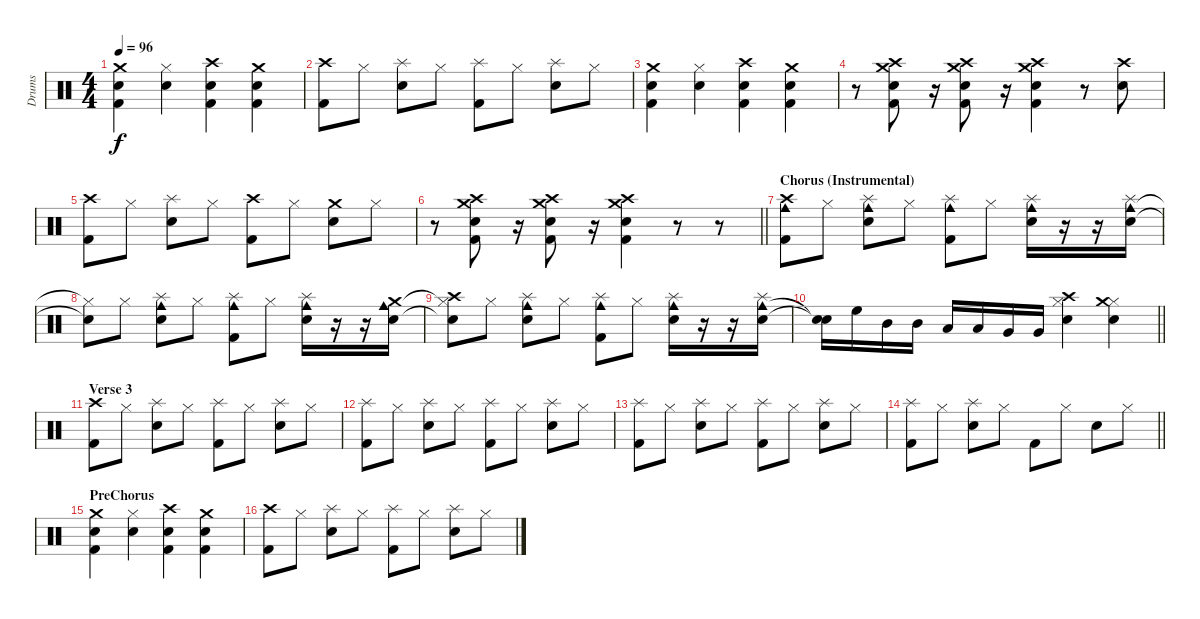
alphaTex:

\track ("Drums" "Drums") {instrument percussion}
\staff {score}
\articulation defaults
\ts (4 4)
\tempo 96
\clef neutral
\ks c
("Snare (hit) 2" "Kick (hit) 2" "Crash medium (hit)").4{dy f} ("Snare (hit) 2" "Hi-Hat (closed)").4 ("Snare (hit) 2" "Kick (hit) 2" "Crash high (hit)").4 ("Snare (hit) 2" "Kick (hit) 2" "Crash medium (hit)").4 |
("Kick (hit) 2" "Crash high (hit)").8 "Hi-Hat (closed)".8 ("Snare (hit) 2" "Splash (hit)").8 "Hi-Hat (closed)".8 ("Kick (hit) 2" "Splash (hit)").8 "Hi-Hat (closed)".8 ("Snare (hit) 2" "Splash (hit)").8 "Hi-Hat (closed)".8 |
("Snare (hit) 2" "Kick (hit) 2" "Crash medium (hit)").4 ("Snare (hit) 2" "Hi-Hat (closed)").4 ("Snare (hit) 2" "Kick (hit) 2" "Crash high (hit)").4 ("Snare (hit) 2" "Kick (hit) 2" "Crash medium (hit)").4 |
r.8 ("Snare (hit) 2" "Kick (hit) 2" "Crash high (hit)" "Crash medium (hit)").8 r.16 ("Snare (hit) 2" "Kick (hit) 2" "Crash high (hit)" "Crash medium (hit)").8 r.16 ("Snare (hit) 2" "Kick (hit) 2" "Crash high (hit)" "Crash medium (hit)").4 r.8 ("Snare (hit) 2" "Crash high (hit)").8 |
("Kick (hit) 2" "Crash high (hit)").8 "Hi-Hat (closed)".8 ("Snare (hit) 2" "Splash (hit)").8 "Hi-Hat (closed)".8 ("Kick (hit) 2" "Crash high (hit)").8 "Hi-Hat (closed)".8 ("Snare (hit) 2" "Crash medium (hit)").8 "Hi-Hat (closed)".8 |
\barLineRight lightlight
r.8 ("Snare (hit) 2" "Kick (hit) 2" "Crash high (hit)" "Crash medium (hit)").8 r.16 ("Snare (hit) 2" "Kick (hit) 2" "Crash high (hit)" "Crash medium (hit)").8 r.16 ("Snare (hit) 2" "Kick (hit) 2" "Crash high (hit)" "Crash medium (hit)").4 r.8 r.8 |
\section ("" "Chorus (Instrumental)")
("Kick (hit) 2" "Cowbell medium (hit)" "Crash high (hit)").8 "Hi-Hat (closed)".8 ("Snare (hit) 2" "Cowbell medium (hit)" "Splash (hit)").8 "Hi-Hat (closed)".8 ("Kick (hit) 2" "Cowbell medium (hit)" "Splash (hit)").8 "Hi-Hat (closed)".8 ("Snare (hit) 2" "Cowbell medium (hit)" "Splash (hit)").16 r.16 r.16 ("Snare (hit) 2" "Cowbell medium (hit)" "Splash (hit)").16 |
("Snare (hit) 2"{t} "Hi-Hat (closed)"{t}).8 "Hi-Hat (closed)".8 ("Snare (hit) 2" "Cowbell medium (hit)" "Splash (hit)").8 "Hi-Hat (closed)".8 ("Kick (hit) 2" "Cowbell medium (hit)" "Splash (hit)").8 "Hi-Hat (closed)".8 ("Snare (hit) 2" "Cowbell medium (hit)" "Splash (hit)").16 r.16 r.16 ("Snare (hit) 2" "Cowbell medium (hit)" "Crash medium (hit)").16 |
("Snare (hit) 2"{t} "Hi-Hat (closed)"{t} "Crash high (hit)").8 "Hi-Hat (closed)".8 ("Snare (hit) 2" "Cowbell medium (hit)" "Splash (hit)").8 "Hi-Hat (closed)".8 ("Kick (hit) 2" "Cowbell medium (hit)" "Splash (hit)").8 "Hi-Hat (closed)".8 ("Snare (hit) 2" "Cowbell medium (hit)" "Splash (hit)").16 r.16 r.16 ("Snare (hit) 2" "Cowbell medium (hit)" "Splash (hit)").16 |
\barLineRight lightlight
("Snare (hit)"{t} "Snare (hit)"{t}).16 "High Floor Tom (hit)".16 "Mid Tom (hit)".16 "Mid Tom (hit)".16 "Low Tom (hit)".16 "Low Tom (hit)".16 "Very Low Tom (hit)".16 "Very Low Tom (hit)".16 ("Snare (hit) 2" "Hi-Hat (closed)" "Crash high (hit)").4 ("Snare (hit) 2" "Hi-Hat (closed)" "Crash medium (hit)").4 |
\section ("" "Verse 3")
("Kick (hit) 2" "Crash high (hit)").8 "Hi-Hat (closed)".8 ("Snare (hit) 2" "Splash (hit)").8 "Hi-Hat (closed)".8 ("Kick (hit) 2" "Splash (hit)").8 "Hi-Hat (closed)".8 ("Snare (hit) 2" "Splash (hit)").8 "Hi-Hat (closed)".8 |
("Kick (hit) 2" "Splash (hit)").8 "Hi-Hat (closed)".8 ("Snare (hit) 2" "Splash (hit)").8 "Hi-Hat (closed)".8 ("Kick (hit) 2" "Splash (hit)").8 "Hi-Hat (closed)".8 ("Snare (hit) 2" "Splash (hit)").8 "Hi-Hat (closed)".8 |
("Kick (hit) 2" "Splash (hit)").8 "Hi-Hat (closed)".8 ("Snare (hit) 2" "Splash (hit)").8 "Hi-Hat (closed)".8 ("Kick (hit) 2" "Splash (hit)").8 "Hi-Hat (closed)".8 ("Snare (hit) 2" "Splash (hit)").8 "Hi-Hat (closed)".8 |
\barLineRight lightlight
("Kick (hit) 2" "Splash (hit)").8 "Hi-Hat (closed)".8 ("Snare (hit) 2" "Splash (hit)").8 "Hi-Hat (closed)".8 "Kick (hit) 2".8 "Hi-Hat (closed)".8 "Snare (hit) 2".8 "Hi-Hat (closed)".8 |
\section ("" "PreChorus")
("Snare (hit) 2" "Kick (hit) 2" "Crash medium (hit)").4 ("Snare (hit) 2" "Hi-Hat (closed)").4 ("Snare (hit) 2" "Kick (hit) 2" "Crash high (hit)").4 ("Snare (hit) 2" "Kick (hit) 2" "Crash medium (hit)").4 |
("Kick (hit) 2" "Crash high (hit)").8 "Hi-Hat (closed)".8 ("Snare (hit) 2" "Splash (hit)").8 "Hi-Hat (closed)".8 ("Kick (hit) 2" "Splash (hit)").8 "Hi-Hat (closed)".8 ("Snare (hit) 2" "Splash (hit)").8 "Hi-Hat (closed)".8
